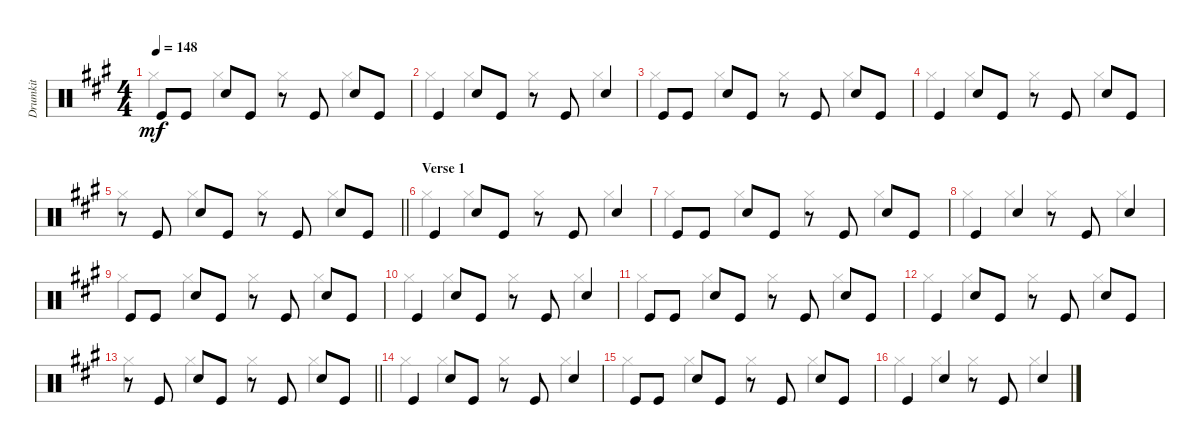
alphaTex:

\track ("Drumkit" "Drumkit") {instrument percussion}
\staff {score}
\articulation defaults
\voice
\ts (4 4)
\tempo 148
\clef neutral
\ks a "Kick (hit)".8{dy mf} "Kick (hit)".8 "Snare (hit) 2".8 "Kick (hit)".8
r.8 "Kick (hit)".8 "Snare (hit) 2".8 "Kick (hit)".8 |
"Kick (hit)".4 "Snare (hit) 2".8 "Kick (hit)".8 r.8 "Kick (hit)".8 "Snare (hit) 2".4 |
"Kick (hit)".8 "Kick (hit)".8 "Snare (hit) 2".8 "Kick (hit)".8 r.8 "Kick (hit)".8 "Snare (hit) 2".8 "Kick (hit)".8 |
"Kick (hit)".4 "Snare (hit) 2".8 "Kick (hit)".8 r.8 "Kick (hit)".8 "Snare (hit) 2".8 "Kick (hit)".8 |
\barLineRight lightlight
r.8 "Kick (hit)".8 "Snare (hit) 2".8 "Kick (hit)".8 r.8 "Kick (hit)".8 "Snare (hit) 2".8 "Kick (hit)".8 |
\section ("" "Verse 1")
"Kick (hit)".4 "Snare (hit) 2".8 "Kick (hit)".8 r.8 "Kick (hit)".8 "Snare (hit) 2".4 |
"Kick (hit)".8 "Kick (hit)".8 "Snare (hit) 2".8 "Kick (hit)".8 r.8 "Kick (hit)".8 "Snare (hit) 2".8 "Kick (hit)".8 |
"Kick (hit)".4 "Snare (hit) 2".4 r.8 "Kick (hit)".8 "Snare (hit) 2".4 |
"Kick (hit)".8 "Kick (hit)".8 "Snare (hit) 2".8 "Kick (hit)".8 r.8 "Kick (hit)".8 "Snare (hit) 2".8 "Kick (hit)".8 |
"Kick (hit)".4 "Snare (hit) 2".8 "Kick (hit)".8 r.8 "Kick (hit)".8 "Snare (hit) 2".4 |
"Kick (hit)".8 "Kick (hit)".8 "Snare (hit) 2".8 "Kick (hit)".8 r.8 "Kick (hit)".8 "Snare (hit) 2".8 "Kick (hit)".8 |
"Kick (hit)".4 "Snare (hit) 2".8 "Kick (hit)".8 r.8 "Kick (hit)".8 "Snare (hit) 2".8 "Kick (hit)".8 |
\barLineRight lightlight
r.8 "Kick (hit)".8 "Snare (hit) 2".8 "Kick (hit)".8 r.8 "Kick (hit)".8 "Snare (hit) 2".8 "Kick (hit)".8 |
"Kick (hit)".4 "Snare (hit) 2".8 "Kick (hit)".8 r.8 "Kick (hit)".8 "Snare (hit) 2".4 |
"Kick (hit)".8 "Kick (hit)".8 "Snare (hit) 2".8 "Kick (hit)".8 r.8 "Kick (hit)".8 "Snare (hit) 2".8 "Kick (hit)".8 |
"Kick (hit)".4 "Snare (hit) 2".4 r.8 "Kick (hit)".8 "Snare (hit) 2".4
\voice
\clef neutral
\ottava regular
\simile none
\ks a "Hi-Hat (closed)".4{dy mf} "Hi-Hat (closed)".4 "Hi-Hat (closed)".4 "Hi-Hat (closed)".4
|
"Hi-Hat (closed)".4 "Hi-Hat (closed)".4 "Hi-Hat (closed)".4 "Hi-Hat (closed)".4 |
"Hi-Hat (closed)".4 "Hi-Hat (closed)".4 "Hi-Hat (closed)".4 "Hi-Hat (closed)".4 |
"Hi-Hat (closed)".4 "Hi-Hat (closed)".4 "Hi-Hat (closed)".4 "Hi-Hat (closed)".4 |
\barLineRight lightlight "Hi-Hat (closed)".4 "Hi-Hat (closed)".4 "Hi-Hat (closed)".4 "Hi-Hat (closed)".4
|
"Hi-Hat (closed)".4 "Hi-Hat (closed)".4 "Hi-Hat (closed)".4 "Hi-Hat (closed)".4 |
"Hi-Hat (closed)".4 "Hi-Hat (closed)".4 "Hi-Hat (closed)".4 "Hi-Hat (closed)".4 |
"Hi-Hat (closed)".4 "Hi-Hat (closed)".4 "Hi-Hat (closed)".4 "Hi-Hat (closed)".4 |
"Hi-Hat (closed)".4 "Hi-Hat (closed)".4 "Hi-Hat (closed)".4 "Hi-Hat (closed)".4 |
"Hi-Hat (closed)".4 "Hi-Hat (closed)".4 "Hi-Hat (closed)".4 "Hi-Hat (closed)".4 |
"Hi-Hat (closed)".4 "Hi-Hat (closed)".4 "Hi-Hat (closed)".4 "Hi-Hat (closed)".4 |
"Hi-Hat (closed)".4 "Hi-Hat (closed)".4 "Hi-Hat (closed)".4 "Hi-Hat (closed)".4 |
\barLineRight lightlight "Hi-Hat (closed)".4 "Hi-Hat (closed)".4 "Hi-Hat (closed)".4 "Hi-Hat (closed)".4
|
"Hi-Hat (closed)".4 "Hi-Hat (closed)".4 "Hi-Hat (closed)".4 "Hi-Hat (closed)".4 |
"Hi-Hat (closed)".4 "Hi-Hat (closed)".4 "Hi-Hat (closed)".4 "Hi-Hat (closed)".4 |
"Hi-Hat (closed)".4 "Hi-Hat (closed)".4 "Hi-Hat (closed)".4 "Hi-Hat (closed)".4
